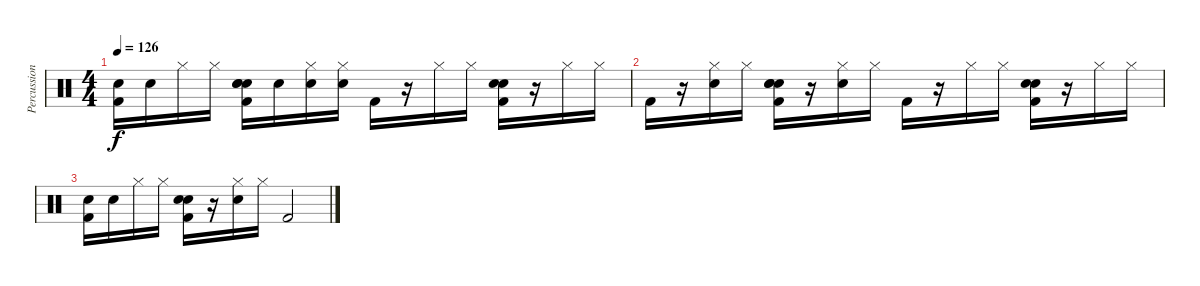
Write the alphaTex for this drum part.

\track ("Percussion" "Percussion") {instrument percussion}
\staff {score}
\articulation defaults
\ts (4 4)
\tempo 126
\clef neutral
\ks c
("Snare (hit) 2" "Kick (hit) 2").16{dy f} "Snare (hit) 2".16 "Hi-Hat (closed)".16 "Hi-Hat (closed)".16 ("Snare (hit) 2" "Hand Clap (hit)" "Electric Snare (hit)" "Kick (hit) 2").16 "Snare (hit) 2".16 ("Hi-Hat (closed)" "Snare (hit) 2").16 ("Hi-Hat (closed)" "Snare (hit) 2").16 "Kick (hit) 2".16 r.16 "Hi-Hat (closed)".16 "Hi-Hat (closed)".16 ("Hand Clap (hit)" "Electric Snare (hit)" "Kick (hit) 2").16 r.16 "Hi-Hat (closed)".16 "Hi-Hat (closed)".16 |
"Kick (hit) 2".16 r.16 ("Hi-Hat (closed)" "Snare (hit) 2").16 "Hi-Hat (closed)".16 ("Snare (hit) 2" "Hand Clap (hit)" "Electric Snare (hit)" "Kick (hit) 2").16 r.16 ("Hi-Hat (closed)" "Snare (hit) 2").16 "Hi-Hat (closed)".16 "Kick (hit) 2".16 r.16 "Hi-Hat (closed)".16 "Hi-Hat (closed)".16 ("Hand Clap (hit)" "Electric Snare (hit)" "Kick (hit) 2").16 r.16 "Hi-Hat (closed)".16 "Hi-Hat (closed)".16 |
("Snare (hit) 2" "Kick (hit) 2").16 "Snare (hit) 2".16 "Hi-Hat (closed)".16 "Hi-Hat (closed)".16 ("Hand Clap (hit)" "Electric Snare (hit)" "Kick (hit) 2").16 r.16 ("Hi-Hat (closed)" "Snare (hit) 2").16 "Hi-Hat (closed)".16 "Kick (hit) 2".2
